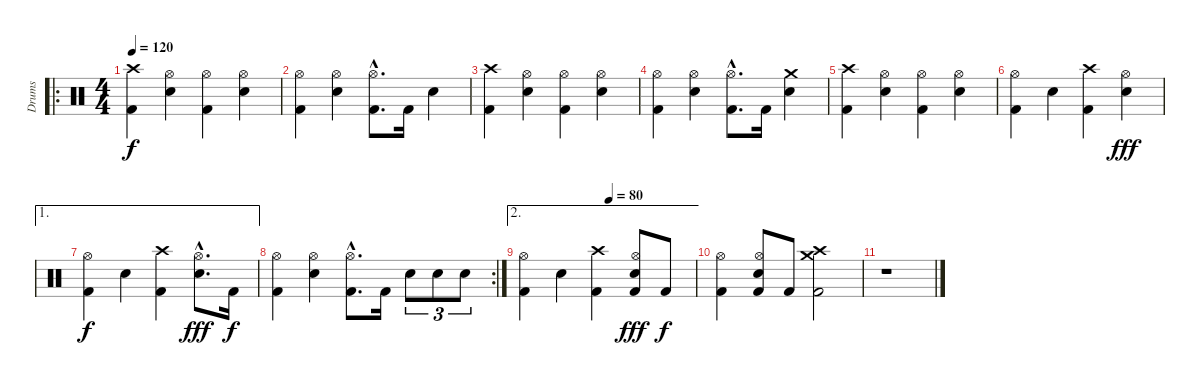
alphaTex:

\track ("Drums" "Drums") {instrument percussion}
\staff {score}
\articulation defaults
\ro
\ts (4 4)
\tempo 120
\clef neutral
\ks c
("Crash high (hit)" "Kick (hit) 2").4{dy f} ("Hi-Hat (open)" "Snare (hit) 2").4 ("Hi-Hat (open)" "Kick (hit) 2").4 ("Hi-Hat (open)" "Snare (hit) 2").4 |
("Hi-Hat (open)" "Kick (hit) 2").4 ("Hi-Hat (open)" "Snare (hit) 2").4 ("Hi-Hat (open)"{hac} "Kick (hit) 2"{hac}).8{d} "Kick (hit) 2".16 "Snare (hit) 2".4 |
("Crash high (hit)" "Kick (hit) 2").4 ("Hi-Hat (open)" "Snare (hit) 2").4 ("Hi-Hat (open)" "Kick (hit) 2").4 ("Hi-Hat (open)" "Snare (hit) 2").4 |
("Hi-Hat (open)" "Kick (hit) 2").4 ("Hi-Hat (open)" "Snare (hit) 2").4 ("Hi-Hat (open)"{hac} "Kick (hit) 2"{hac}).8{d} "Kick (hit) 2".16 ("Crash medium (hit)" "Snare (hit) 2").4 |
("Crash high (hit)" "Kick (hit) 2").4 ("Hi-Hat (open)" "Snare (hit) 2").4 ("Hi-Hat (open)" "Kick (hit) 2").4 ("Hi-Hat (open)" "Snare (hit) 2").4 |
("Hi-Hat (open)" "Kick (hit) 2").4 "Snare (hit) 2".4 ("Crash high (hit)" "Kick (hit) 2").4 ("Hi-Hat (open)" "Snare (hit) 2").4{dy fff} |
\ae 1
("Hi-Hat (open)" "Kick (hit) 2").4{dy f} "Snare (hit) 2".4 ("Crash high (hit)" "Kick (hit) 2").4 ("Hi-Hat (open)"{hac} "Snare (hit) 2"{hac}).8{d dy fff} "Kick (hit) 2".16{dy f} |
\rc 2
("Hi-Hat (open)" "Kick (hit) 2").4 ("Hi-Hat (open)" "Snare (hit) 2").4 ("Hi-Hat (open)"{hac} "Kick (hit) 2"{hac}).8{d} "Kick (hit) 2".16 "Snare (hit) 2".8{tu (3 2)} "Snare (hit) 2".8{tu (3 2)} "Snare (hit) 2".8{tu (3 2)} |
\ae 2
\tempo (80 0.5)
("Hi-Hat (open)" "Kick (hit) 2").4 "Snare (hit) 2".4 ("Crash high (hit)" "Kick (hit) 2").4 ("Hi-Hat (open)" "Snare (hit) 2" "Kick (hit) 2").8{dy fff} "Kick (hit) 2".8{dy f} |
("Hi-Hat (open)" "Kick (hit) 2").4 ("Hi-Hat (open)" "Snare (hit) 2" "Kick (hit) 2").8 "Kick (hit) 2".8 ("Crash high (hit)" "Crash medium (hit)" "Kick (hit) 2").2 |
r.1
